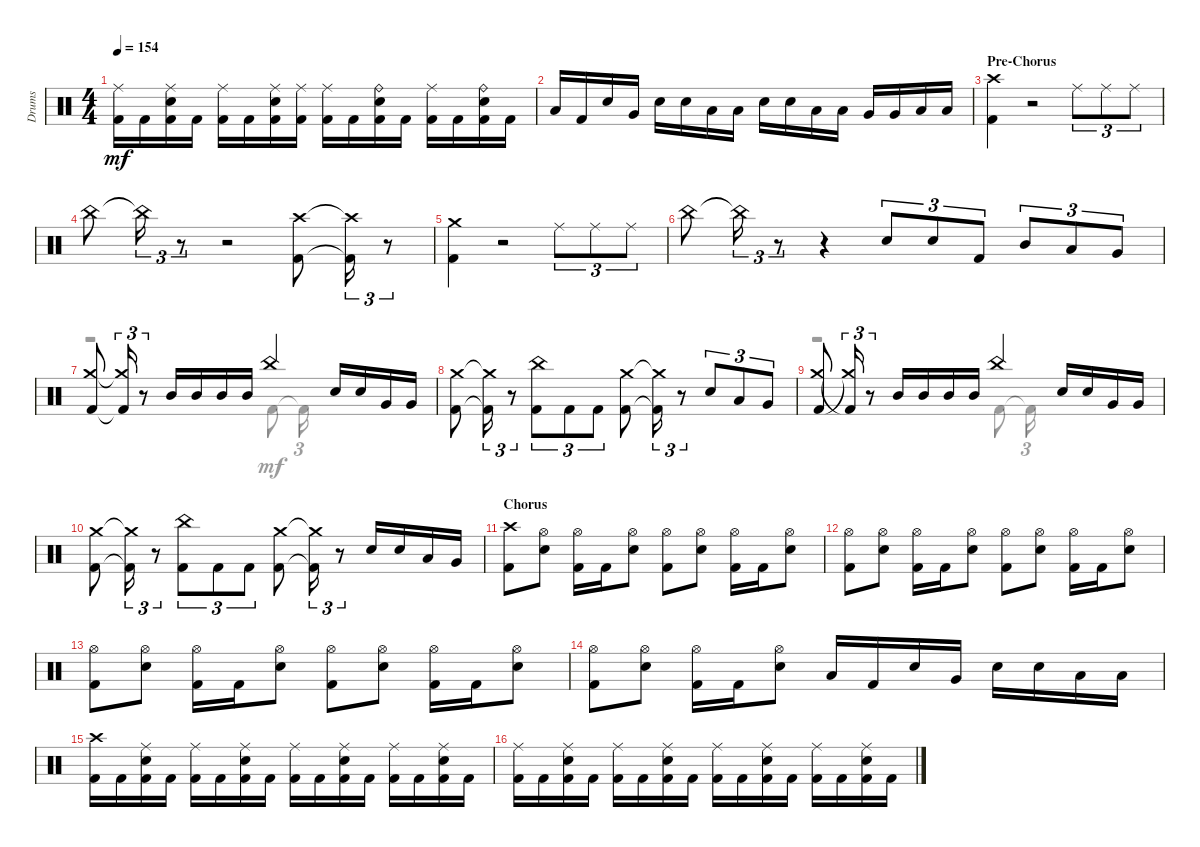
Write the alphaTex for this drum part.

\track ("Drums" "Drums") {instrument percussion}
\staff {score}
\articulation defaults
\voice
\ts (4 4)
\tempo 154
\clef neutral
\ks aminor
("Kick (hit) 2" "Ride (middle)").16{dy mf} "Kick (hit) 2".16 ("Kick (hit) 2" "Snare (hit) 2" "Ride (middle)").16 "Kick (hit) 2".16 ("Kick (hit) 2" "Ride (middle)").16 "Kick (hit) 2".16 ("Kick (hit) 2" "Snare (hit) 2" "Ride (middle)").16 ("Kick (hit) 2" "Ride (middle)").16 ("Kick (hit) 2" "Ride (middle)").16 "Kick (hit) 2".16 ("Kick (hit) 2" "Snare (hit) 2" "Ride (bell)").16 "Kick (hit) 2".16 ("Kick (hit) 2" "Ride (middle)").16 "Kick (hit) 2".16 ("Kick (hit) 2" "Snare (hit) 2" "Ride (bell)").16 "Kick (hit) 2".16 |
"Low Tom (hit)".16 "Kick (hit) 2".16 "Snare (hit) 2".16 "Very Low Tom (hit)".16 "Snare (hit) 2".16 "Snare (hit) 2".16 "Low Floor Tom (hit)".16 "Low Floor Tom (hit)".16 "Snare (hit) 2".16 "Snare (hit) 2".16 "Low Tom (hit)".16 "Low Tom (hit)".16 "Very Low Tom (hit)".16 "Very Low Tom (hit)".16 "Low Floor Tom (hit)".16 "Low Floor Tom (hit)".16 |
\section ("" "Pre-Chorus")
("Kick (hit) 2" "Crash high (hit)").4 r.2 "Ride (middle)".8{tu (3 2)} "Ride (middle)".8{tu (3 2)} "Ride (middle)".8{tu (3 2)} |
"China (hit)".8 "China (hit)"{t}.16{tu (3 2)} r.8{tu (3 2)} r.2 ("Kick (hit) 2" "Crash high (hit)").8 ("Kick (hit) 2"{t} "Crash high (hit)"{t}).16{tu (3 2)} r.8{tu (3 2)} |
("Kick (hit) 2" "Crash medium (hit)").4 r.2 "Ride (middle)".8{tu (3 2)} "Ride (middle)".8{tu (3 2)} "Ride (middle)".8{tu (3 2)} |
"China (hit)".8 "China (hit)"{t}.16{tu (3 2)} r.8{tu (3 2)} r.4 "Snare (hit) 2".8{tu (3 2)} "Snare (hit) 2".8{tu (3 2)} "Kick (hit) 2".8{tu (3 2)} "Mid Tom (hit)".8{tu (3 2)} "Low Tom (hit)".8{tu (3 2)} "Very Low Tom (hit)".8{tu (3 2)} |
("Kick (hit) 2" "Crash medium (hit)").8 ("Kick (hit) 2"{t} "Crash medium (hit)"{t}).16{tu (3 2)} r.8{tu (3 2)} "Mid Tom (hit)".16 "Mid Tom (hit)".16 "Mid Tom (hit)".16 "Mid Tom (hit)".16 "China (hit)".4 "Snare (hit) 2".16 "Snare (hit) 2".16 "Very Low Tom (hit)".16 "Very Low Tom (hit)".16 |
("Kick (hit) 2" "Crash medium (hit)").8 ("Kick (hit) 2"{t} "Crash medium (hit)"{t}).16{tu (3 2)} r.8{tu (3 2)} ("Kick (hit) 2" "China (hit)").8{tu (3 2)} "Kick (hit) 2".8{tu (3 2)} "Kick (hit) 2".8{tu (3 2)} ("Kick (hit) 2" "Crash medium (hit)").8 ("Kick (hit) 2"{t} "Crash medium (hit)"{t}).16{tu (3 2)} r.8{tu (3 2)} "Snare (hit) 2".8{tu (3 2)} "Low Tom (hit)".8{tu (3 2)} "Very Low Tom (hit)".8{tu (3 2)} |
("Crash medium (hit)" "Kick (hit) 2").8 ("Kick (hit) 2"{t} "Crash medium (hit)"{t}).16{tu (3 2)} r.8{tu (3 2)} "Mid Tom (hit)".16 "Mid Tom (hit)".16 "Mid Tom (hit)".16 "Mid Tom (hit)".16 "China (hit)".4 "Snare (hit) 2".16 "Snare (hit) 2".16 "Very Low Tom (hit)".16 "Very Low Tom (hit)".16 |
("Kick (hit) 2" "Crash medium (hit)").8 ("Kick (hit) 2"{t} "Crash medium (hit)"{t}).16{tu (3 2)} r.8{tu (3 2)} ("Kick (hit) 2" "China (hit)").8{tu (3 2)} "Kick (hit) 2".8{tu (3 2)} "Kick (hit) 2".8{tu (3 2)} ("Crash medium (hit)" "Kick (hit) 2").8 ("Crash medium (hit)"{t} "Kick (hit) 2"{t}).16{tu (3 2)} r.8{tu (3 2)} "Snare (hit) 2".16 "Snare (hit) 2".16 "Low Tom (hit)".16 "Very Low Tom (hit)".16 |
\section ("" "Chorus")
("Kick (hit) 2" "Crash high (hit)").8 ("Snare (hit) 2" "Hi-Hat (open)").8 ("Kick (hit) 2" "Hi-Hat (open)").16 "Kick (hit) 2".16 ("Hi-Hat (open)" "Snare (hit) 2").8 ("Kick (hit) 2" "Hi-Hat (open)").8 ("Snare (hit) 2" "Hi-Hat (open)").8 ("Kick (hit) 2" "Hi-Hat (open)").16 "Kick (hit) 2".16 ("Hi-Hat (open)" "Snare (hit) 2").8 |
("Kick (hit) 2" "Hi-Hat (open)").8 ("Snare (hit) 2" "Hi-Hat (open)").8 ("Kick (hit) 2" "Hi-Hat (open)").16 "Kick (hit) 2".16 ("Snare (hit) 2" "Hi-Hat (open)").8 ("Hi-Hat (open)" "Kick (hit) 2").8 ("Snare (hit) 2" "Hi-Hat (open)").8 ("Kick (hit) 2" "Hi-Hat (open)").16 "Kick (hit) 2".16 ("Snare (hit) 2" "Hi-Hat (open)").8 |
("Kick (hit) 2" "Hi-Hat (open)").8 ("Snare (hit) 2" "Hi-Hat (open)").8 ("Kick (hit) 2" "Hi-Hat (open)").16 "Kick (hit) 2".16 ("Snare (hit) 2" "Hi-Hat (open)").8 ("Kick (hit) 2" "Hi-Hat (open)").8 ("Snare (hit) 2" "Hi-Hat (open)").8 ("Kick (hit) 2" "Hi-Hat (open)").16 "Kick (hit) 2".16 ("Snare (hit) 2" "Hi-Hat (open)").8 |
("Kick (hit) 2" "Hi-Hat (open)").8 ("Snare (hit) 2" "Hi-Hat (open)").8 ("Kick (hit) 2" "Hi-Hat (open)").16 "Kick (hit) 2".16 ("Hi-Hat (open)" "Snare (hit) 2").8 "Low Tom (hit)".16 "Kick (hit) 2".16 "Snare (hit) 2".16 "Very Low Tom (hit)".16 "Snare (hit) 2".16 "Snare (hit) 2".16 "Low Floor Tom (hit)".16 "Low Floor Tom (hit)".16 |
("Kick (hit) 2" "Crash high (hit)").16 "Kick (hit) 2".16 ("Snare (hit) 2" "Ride (middle)" "Kick (hit) 2").16 "Kick (hit) 2".16 ("Kick (hit) 2" "Ride (middle)").16 "Kick (hit) 2".16 ("Snare (hit) 2" "Kick (hit) 2" "Ride (middle)").16 "Kick (hit) 2".16 ("Kick (hit) 2" "Ride (middle)").16 "Kick (hit) 2".16 ("Kick (hit) 2" "Snare (hit) 2" "Ride (middle)").16 "Kick (hit) 2".16 ("Ride (middle)" "Kick (hit) 2").16 "Kick (hit) 2".16 ("Ride (middle)" "Snare (hit) 2" "Kick (hit) 2").16 "Kick (hit) 2".16 |
("Kick (hit) 2" "Ride (middle)").16 "Kick (hit) 2".16 ("Ride (middle)" "Kick (hit) 2" "Snare (hit) 2").16 "Kick (hit) 2".16 ("Kick (hit) 2" "Ride (middle)").16 "Kick (hit) 2".16 ("Snare (hit) 2" "Kick (hit) 2" "Ride (middle)").16 "Kick (hit) 2".16 ("Ride (middle)" "Kick (hit) 2").16 "Kick (hit) 2".16 ("Snare (hit) 2" "Ride (middle)" "Kick (hit) 2").16 "Kick (hit) 2".16 ("Kick (hit) 2" "Ride (middle)").16 "Kick (hit) 2".16 ("Kick (hit) 2" "Snare (hit) 2" "Ride (middle)").16 "Kick (hit) 2".16
\voice
\clef neutral
\ottava regular
\simile none
\ks aminor
|
|
|
|
|
|
r.2 "Kick (hit) 2".8 "Kick (hit) 2"{t}.16{tu (3 2)} |
|
r.2 "Kick (hit) 2".8 "Kick (hit) 2"{t}.16{tu (3 2)} |
|
|
|
|
|
|
